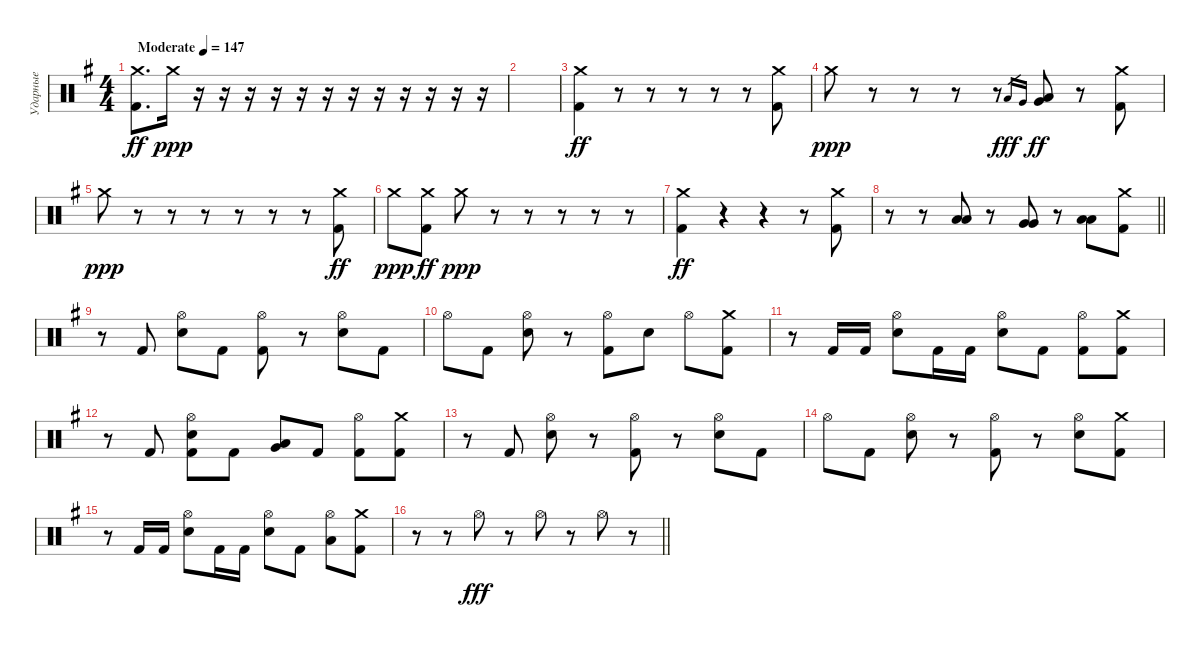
\track ("Ударные" "Ударные") {instrument percussion}
\staff {score}
\articulation defaults
\ts (4 4)
\tempo (147 "Moderate")
\clef neutral
\ks eminor
("Crash medium (hit)" "Kick (hit) 2").8{d dy ff} "Crash medium (hit)".16{dy ppp} r.16 r.16 r.16 r.16 r.16 r.16 r.16 r.16 r.16 r.16 r.16 r.16 |
|
("Kick (hit) 2" "Crash medium (hit)").4{dy ff} r.8 r.8 r.8 r.8 r.8 ("Kick (hit) 2" "Crash medium (hit)").8 |
"Crash medium (hit)".8{dy ppp} r.8 r.8 r.8 r.8 "Low Floor Tom (hit)".16{gr dy fff} "Very Low Tom (hit)".16{gr} ("Low Floor Tom (hit)" "Very Low Tom (hit)").8{dy ff} r.8 ("Kick (hit) 2" "Crash medium (hit)").8 |
"Crash medium (hit)".8{dy ppp} r.8 r.8 r.8 r.8 r.8 r.8 ("Kick (hit) 2" "Crash medium (hit)").8{dy ff} |
"Crash medium (hit)".8{dy ppp} ("Kick (hit) 2" "Crash medium (hit)").8{dy ff} "Crash medium (hit)".8{dy ppp} r.8 r.8 r.8 r.8 r.8 |
("Kick (hit) 2" "Crash medium (hit)").4{dy ff} r.4 r.4 r.8 ("Kick (hit) 2" "Crash medium (hit)").8 |
\barLineRight lightlight
r.8 r.8 ("Low Tom (hit)" "Low Tom (hit)").8 r.8 ("Very Low Tom (hit)" "Very Low Tom (hit)").8 r.8 ("Low Floor Tom (hit)" "Low Floor Tom (hit)").8 ("Kick (hit) 2" "Crash medium (hit)").8 |
r.8 "Kick (hit) 2".8 ("Electric Snare (hit)" "Hi-Hat (open)").8 "Kick (hit) 2".8 ("Kick (hit) 2" "Hi-Hat (open)").8 r.8 ("Electric Snare (hit)" "Hi-Hat (open)").8 "Kick (hit) 2".8 |
"Hi-Hat (open)".8 "Kick (hit) 2".8 ("Electric Snare (hit)" "Hi-Hat (open)").8 r.8 ("Kick (hit) 2" "Hi-Hat (open)").8 "Electric Snare (hit)".8 "Hi-Hat (open)".8 ("Kick (hit) 2" "Crash medium (hit)").8 |
r.8 "Kick (hit) 2".16 "Kick (hit) 2".16 ("Electric Snare (hit)" "Hi-Hat (open)").8 "Kick (hit) 2".16 "Kick (hit) 2".16 ("Electric Snare (hit)" "Hi-Hat (open)").8 "Kick (hit) 2".8 ("Kick (hit) 2" "Hi-Hat (open)").8 ("Kick (hit) 2" "Crash medium (hit)").8 |
r.8 "Kick (hit) 2".8 ("Kick (hit) 2" "Electric Snare (hit)" "Hi-Hat (open)").8 "Kick (hit) 2".8 ("Low Tom (hit)" "Very Low Tom (hit)").8 "Kick (hit) 2".8 ("Kick (hit) 2" "Hi-Hat (open)").8 ("Kick (hit) 2" "Crash medium (hit)").8 |
r.8 "Kick (hit) 2".8 ("Electric Snare (hit)" "Hi-Hat (open)").8 r.8 ("Kick (hit) 2" "Hi-Hat (open)").8 r.8 ("Electric Snare (hit)" "Hi-Hat (open)").8 "Kick (hit) 2".8 |
"Hi-Hat (open)".8 "Kick (hit) 2".8 ("Electric Snare (hit)" "Hi-Hat (open)").8 r.8 ("Kick (hit) 2" "Hi-Hat (open)").8 r.8 ("Electric Snare (hit)" "Hi-Hat (open)").8 ("Kick (hit) 2" "Crash medium (hit)").8 |
r.8 "Kick (hit) 2".16 "Kick (hit) 2".16 ("Electric Snare (hit)" "Hi-Hat (open)").8 "Kick (hit) 2".16 "Kick (hit) 2".16 ("Electric Snare (hit)" "Hi-Hat (open)").8 "Kick (hit) 2".8 ("Low Tom (hit)" "Hi-Hat (open)").8 ("Kick (hit) 2" "Crash medium (hit)").8 |
\barLineRight lightlight
r.8 r.8 "Hi-Hat (open)".8{dy fff} r.8 "Hi-Hat (open)".8 r.8 "Hi-Hat (open)".8 r.8
